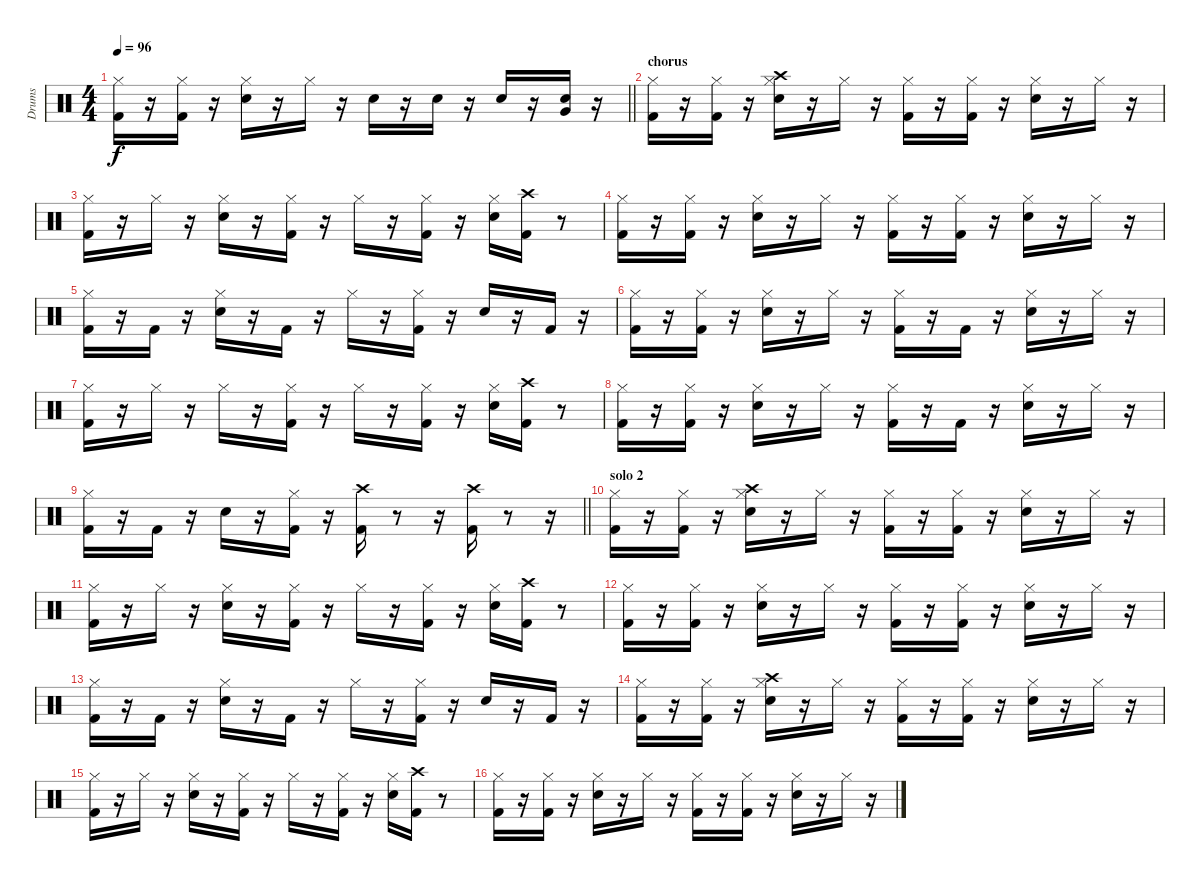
\track ("Drums" "Drums") {instrument percussion}
\staff {score}
\articulation defaults
\ts (4 4)
\tempo 96
\clef neutral
\barLineRight lightlight
\ks c
("Kick (hit) 2" "Hi-Hat (closed)").16{dy f} r.16 ("Kick (hit) 2" "Hi-Hat (closed)").16 r.16 ("Snare (hit) 2" "Hi-Hat (closed)").16 r.16 "Hi-Hat (closed)".16 r.16 "Snare (hit) 2".16 r.16 "Snare (hit) 2".16 r.16 "Snare (hit) 2".16 r.16 ("Snare (hit) 2" "Very Low Tom (hit)").16 r.16 |
\section ("" "chorus")
("Kick (hit) 2" "Hi-Hat (closed)").16 r.16 ("Kick (hit) 2" "Hi-Hat (closed)").16 r.16 ("Snare (hit) 2" "Hi-Hat (closed)" "Crash high (hit)").16 r.16 "Hi-Hat (closed)".16 r.16 ("Kick (hit) 2" "Hi-Hat (closed)").16 r.16 ("Kick (hit) 2" "Hi-Hat (closed)").16 r.16 ("Snare (hit) 2" "Hi-Hat (closed)").16 r.16 "Hi-Hat (closed)".16 r.16 |
("Kick (hit) 2" "Hi-Hat (closed)").16 r.16 "Hi-Hat (closed)".16 r.16 ("Snare (hit) 2" "Hi-Hat (closed)").16 r.16 ("Kick (hit) 2" "Hi-Hat (closed)").16 r.16 "Hi-Hat (closed)".16 r.16 ("Kick (hit) 2" "Hi-Hat (closed)").16 r.16 ("Snare (hit) 2" "Hi-Hat (closed)").16 ("Kick (hit) 2" "Crash high (hit)").16 r.8 |
("Kick (hit) 2" "Hi-Hat (closed)").16 r.16 ("Kick (hit) 2" "Hi-Hat (closed)").16 r.16 ("Snare (hit) 2" "Hi-Hat (closed)").16 r.16 "Hi-Hat (closed)".16 r.16 ("Kick (hit) 2" "Hi-Hat (closed)").16 r.16 ("Kick (hit) 2" "Hi-Hat (closed)").16 r.16 ("Snare (hit) 2" "Hi-Hat (closed)").16 r.16 "Hi-Hat (closed)".16 r.16 |
("Kick (hit) 2" "Hi-Hat (closed)").16 r.16 "Kick (hit) 2".16 r.16 ("Snare (hit) 2" "Hi-Hat (closed)").16 r.16 "Kick (hit) 2".16 r.16 "Hi-Hat (closed)".16 r.16 ("Kick (hit) 2" "Hi-Hat (closed)").16 r.16 "Snare (hit) 2".16 r.16 "Kick (hit) 2".16 r.16 |
("Kick (hit) 2" "Hi-Hat (closed)").16 r.16 ("Kick (hit) 2" "Hi-Hat (closed)").16 r.16 ("Snare (hit) 2" "Hi-Hat (closed)").16 r.16 "Hi-Hat (closed)".16 r.16 ("Kick (hit) 2" "Hi-Hat (closed)").16 r.16 "Kick (hit) 2".16 r.16 ("Snare (hit) 2" "Hi-Hat (closed)").16 r.16 "Hi-Hat (closed)".16 r.16 |
("Kick (hit) 2" "Hi-Hat (closed)").16 r.16 "Hi-Hat (closed)".16 r.16 "Hi-Hat (closed)".16 r.16 ("Kick (hit) 2" "Hi-Hat (closed)").16 r.16 "Hi-Hat (closed)".16 r.16 ("Kick (hit) 2" "Hi-Hat (closed)").16 r.16 ("Snare (hit) 2" "Hi-Hat (closed)").16 ("Kick (hit) 2" "Crash high (hit)").16 r.8 |
("Kick (hit) 2" "Hi-Hat (closed)").16 r.16 ("Kick (hit) 2" "Hi-Hat (closed)").16 r.16 ("Snare (hit) 2" "Hi-Hat (closed)").16 r.16 "Hi-Hat (closed)".16 r.16 ("Kick (hit) 2" "Hi-Hat (closed)").16 r.16 "Kick (hit) 2".16 r.16 ("Snare (hit) 2" "Hi-Hat (closed)").16 r.16 "Hi-Hat (closed)".16 r.16 |
\barLineRight lightlight
("Kick (hit) 2" "Hi-Hat (closed)").16 r.16 "Kick (hit) 2".16 r.16 "Snare (hit) 2".16 r.16 ("Kick (hit) 2" "Hi-Hat (closed)").16 r.16 ("Kick (hit) 2" "Crash high (hit)").16 r.8 r.16 ("Kick (hit) 2" "Crash high (hit)").16 r.8 r.16 |
\section ("" "solo 2")
("Kick (hit) 2" "Hi-Hat (closed)").16 r.16 ("Kick (hit) 2" "Hi-Hat (closed)").16 r.16 ("Snare (hit) 2" "Hi-Hat (closed)" "Crash high (hit)").16 r.16 "Hi-Hat (closed)".16 r.16 ("Kick (hit) 2" "Hi-Hat (closed)").16 r.16 ("Kick (hit) 2" "Hi-Hat (closed)").16 r.16 ("Snare (hit) 2" "Hi-Hat (closed)").16 r.16 "Hi-Hat (closed)".16 r.16 |
("Kick (hit) 2" "Hi-Hat (closed)").16 r.16 "Hi-Hat (closed)".16 r.16 ("Snare (hit) 2" "Hi-Hat (closed)").16 r.16 ("Kick (hit) 2" "Hi-Hat (closed)").16 r.16 "Hi-Hat (closed)".16 r.16 ("Kick (hit) 2" "Hi-Hat (closed)").16 r.16 ("Snare (hit) 2" "Hi-Hat (closed)").16 ("Kick (hit) 2" "Crash high (hit)").16 r.8 |
("Kick (hit) 2" "Hi-Hat (closed)").16 r.16 ("Kick (hit) 2" "Hi-Hat (closed)").16 r.16 ("Snare (hit) 2" "Hi-Hat (closed)").16 r.16 "Hi-Hat (closed)".16 r.16 ("Kick (hit) 2" "Hi-Hat (closed)").16 r.16 ("Kick (hit) 2" "Hi-Hat (closed)").16 r.16 ("Snare (hit) 2" "Hi-Hat (closed)").16 r.16 "Hi-Hat (closed)".16 r.16 |
("Kick (hit) 2" "Hi-Hat (closed)").16 r.16 "Kick (hit) 2".16 r.16 ("Snare (hit) 2" "Hi-Hat (closed)").16 r.16 "Kick (hit) 2".16 r.16 "Hi-Hat (closed)".16 r.16 ("Kick (hit) 2" "Hi-Hat (closed)").16 r.16 "Snare (hit) 2".16 r.16 "Kick (hit) 2".16 r.16 |
("Kick (hit) 2" "Hi-Hat (closed)").16 r.16 ("Kick (hit) 2" "Hi-Hat (closed)").16 r.16 ("Snare (hit) 2" "Hi-Hat (closed)" "Crash high (hit)").16 r.16 "Hi-Hat (closed)".16 r.16 ("Kick (hit) 2" "Hi-Hat (closed)").16 r.16 ("Kick (hit) 2" "Hi-Hat (closed)").16 r.16 ("Snare (hit) 2" "Hi-Hat (closed)").16 r.16 "Hi-Hat (closed)".16 r.16 |
("Kick (hit) 2" "Hi-Hat (closed)").16 r.16 "Hi-Hat (closed)".16 r.16 ("Snare (hit) 2" "Hi-Hat (closed)").16 r.16 ("Kick (hit) 2" "Hi-Hat (closed)").16 r.16 "Hi-Hat (closed)".16 r.16 ("Kick (hit) 2" "Hi-Hat (closed)").16 r.16 ("Snare (hit) 2" "Hi-Hat (closed)").16 ("Kick (hit) 2" "Crash high (hit)").16 r.8 |
("Kick (hit) 2" "Hi-Hat (closed)").16 r.16 ("Kick (hit) 2" "Hi-Hat (closed)").16 r.16 ("Snare (hit) 2" "Hi-Hat (closed)").16 r.16 "Hi-Hat (closed)".16 r.16 ("Kick (hit) 2" "Hi-Hat (closed)").16 r.16 ("Kick (hit) 2" "Hi-Hat (closed)").16 r.16 ("Snare (hit) 2" "Hi-Hat (closed)").16 r.16 "Hi-Hat (closed)".16 r.16
